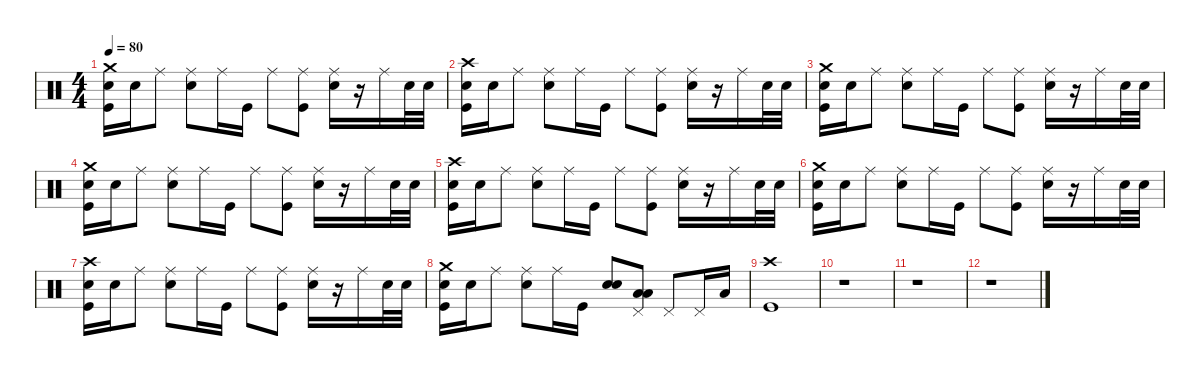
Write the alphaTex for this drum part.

\defaultSystemsLayout 4
\hideDynamics
\bracketExtendMode nobrackets
\singleTrackTrackNamePolicy hidden
\multiTrackTrackNamePolicy hidden
\firstSystemTrackNameMode fullname
\firstSystemTrackNameOrientation horizontal
\otherSystemsTrackNameOrientation horizontal
\track ("Percussion" "drm.") {defaultSystemsLayout 4 instrument percussion}
\staff {score}
\articulation defaults
\ts (4 4)
\tempo 80
\clef neutral
\ks c
("Crash medium (hit)" "Snare (hit) 2" "Kick (hit)").16{dy f beam Down} "Snare (hit) 2".16{dy p beam Down} "Ride (middle)".8{dy f beam Down} ("Ride (middle)" "Snare (hit) 2").8{beam Down} "Ride (middle)".16{beam Down} "Kick (hit)".16{beam Down} "Ride (middle)".8{beam Down} ("Ride (middle)" "Kick (hit)").8{beam Down} ("Ride (middle)" "Snare (hit) 2").16{beam Down} r.16{beam Down} "Ride (middle)".16{beam Down} "Snare (hit) 2".32{dy p beam Down} "Snare (hit) 2".32{beam Down} |
("Crash high (hit)" "Snare (hit) 2" "Kick (hit)").16{dy f beam Down} "Snare (hit) 2".16{dy p beam Down} "Ride (middle)".8{dy f beam Down} ("Ride (middle)" "Snare (hit) 2").8{beam Down} "Ride (middle)".16{beam Down} "Kick (hit)".16{beam Down} "Ride (middle)".8{beam Down} ("Ride (middle)" "Kick (hit)").8{beam Down} ("Ride (middle)" "Snare (hit) 2").16{beam Down} r.16{beam Down} "Ride (middle)".16{beam Down} "Snare (hit) 2".32{dy p beam Down} "Snare (hit) 2".32{beam Down} |
("Crash medium (hit)" "Snare (hit) 2" "Kick (hit)").16{dy f beam Down} "Snare (hit) 2".16{dy p beam Down} "Ride (middle)".8{dy f beam Down} ("Ride (middle)" "Snare (hit) 2").8{beam Down} "Ride (middle)".16{beam Down} "Kick (hit)".16{beam Down} "Ride (middle)".8{beam Down} ("Ride (middle)" "Kick (hit)").8{beam Down} ("Ride (middle)" "Snare (hit) 2").16{beam Down} r.16{beam Down} "Ride (middle)".16{beam Down} "Snare (hit) 2".32{dy p beam Down} "Snare (hit) 2".32{beam Down} |
("Crash medium (hit)" "Snare (hit) 2" "Kick (hit)").16{dy f beam Down} "Snare (hit) 2".16{dy p beam Down} "Ride (middle)".8{dy f beam Down} ("Ride (middle)" "Snare (hit) 2").8{beam Down} "Ride (middle)".16{beam Down} "Kick (hit)".16{beam Down} "Ride (middle)".8{beam Down} ("Ride (middle)" "Kick (hit)").8{beam Down} ("Ride (middle)" "Snare (hit) 2").16{beam Down} r.16{beam Down} "Ride (middle)".16{beam Down} "Snare (hit) 2".32{dy p beam Down} "Snare (hit) 2".32{beam Down} |
("Crash high (hit)" "Snare (hit) 2" "Kick (hit)").16{dy f beam Down} "Snare (hit) 2".16{dy p beam Down} "Ride (middle)".8{dy f beam Down} ("Ride (middle)" "Snare (hit) 2").8{beam Down} "Ride (middle)".16{beam Down} "Kick (hit)".16{beam Down} "Ride (middle)".8{beam Down} ("Ride (middle)" "Kick (hit)").8{beam Down} ("Ride (middle)" "Snare (hit) 2").16{beam Down} r.16{beam Down} "Ride (middle)".16{beam Down} "Snare (hit) 2".32{dy p beam Down} "Snare (hit) 2".32{beam Down} |
("Crash medium (hit)" "Snare (hit) 2" "Kick (hit)").16{dy f beam Down} "Snare (hit) 2".16{dy p beam Down} "Ride (middle)".8{dy f beam Down} ("Ride (middle)" "Snare (hit) 2").8{beam Down} "Ride (middle)".16{beam Down} "Kick (hit)".16{beam Down} "Ride (middle)".8{beam Down} ("Ride (middle)" "Kick (hit)").8{beam Down} ("Ride (middle)" "Snare (hit) 2").16{beam Down} r.16{beam Down} "Ride (middle)".16{beam Down} "Snare (hit) 2".32{dy p beam Down} "Snare (hit) 2".32{beam Down} |
("Crash high (hit)" "Snare (hit) 2" "Kick (hit)").16{dy f beam Down} "Snare (hit) 2".16{dy p beam Down} "Ride (middle)".8{dy f beam Down} ("Ride (middle)" "Snare (hit) 2").8{beam Down} "Ride (middle)".16{beam Down} "Kick (hit)".16{beam Down} "Ride (middle)".8{beam Down} ("Ride (middle)" "Kick (hit)").8{beam Down} ("Ride (middle)" "Snare (hit) 2").16{beam Down} r.16{beam Down} "Ride (middle)".16{beam Down} "Snare (hit) 2".32{dy p beam Down} "Snare (hit) 2".32{beam Down} |
("Crash medium (hit)" "Snare (hit) 2" "Kick (hit)").16{dy f beam Down} "Snare (hit) 2".16{dy p beam Down} "Ride (middle)".8{dy f beam Down} ("Ride (middle)" "Snare (hit) 2").8{beam Down} "Ride (middle)".16{beam Down} "Kick (hit)".16{beam Down} ("Snare (hit) 2" "Snare (hit) 2").8{beam Up} ("Pedal Hi-Hat (hit)" "Low Tom (hit)" "Low Tom (hit)").8{beam Up} "Pedal Hi-Hat (hit)".8{beam Up} "Pedal Hi-Hat (hit)".16{beam Up} "Low Tom (hit)".16{beam Up} |
("Crash high (hit)" "Kick (hit)").1{beam Down} |
r.1{beam Down} |
r.1{beam Down} |
r.1{beam Down}
